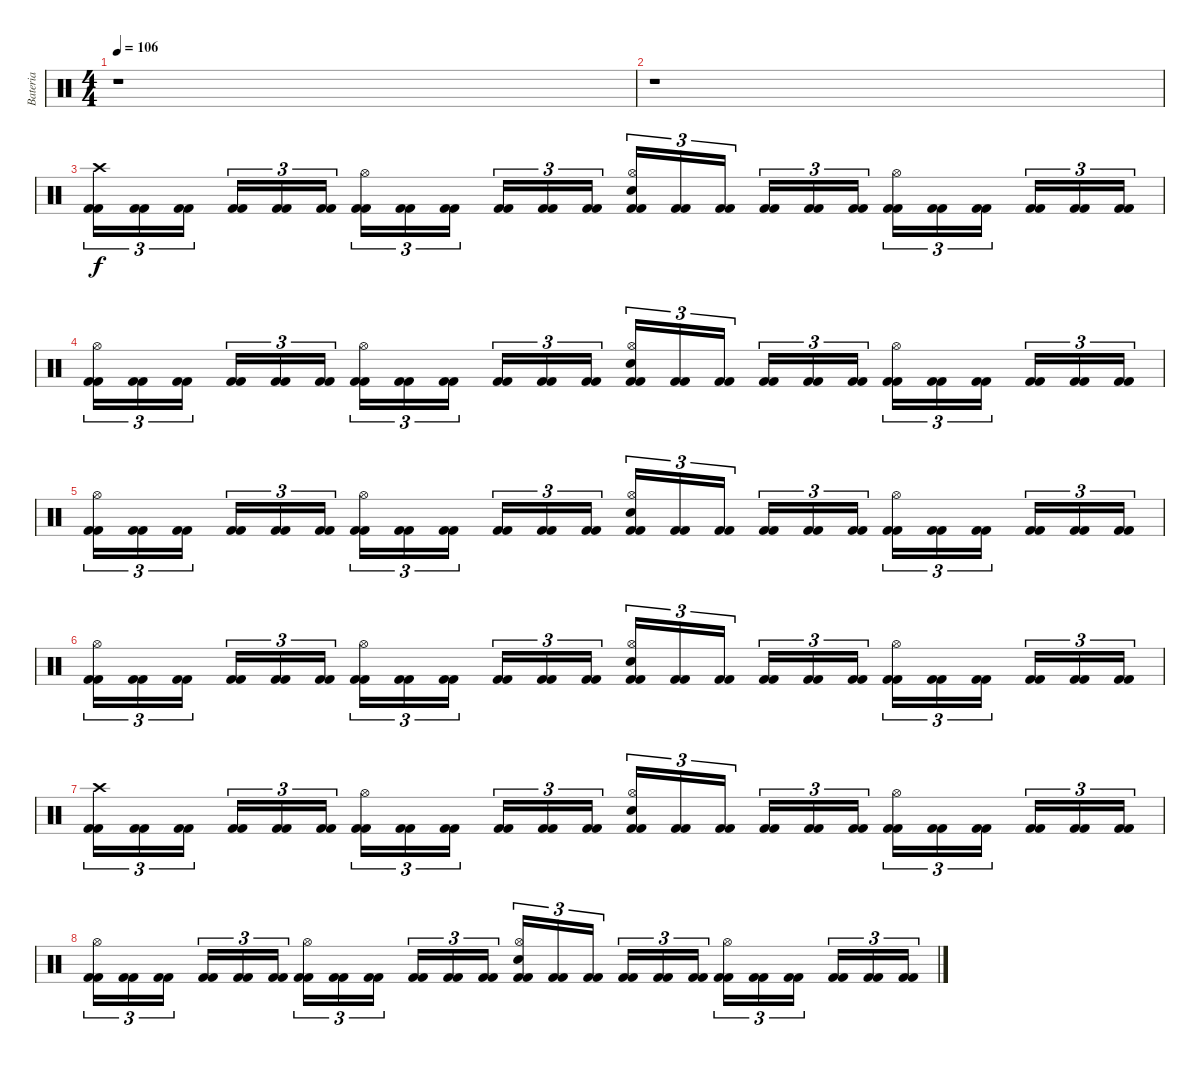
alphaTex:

\track ("Bateria" "Bateria") {instrument percussion}
\staff {score}
\articulation defaults
\ts (4 4)
\tempo 106
\clef neutral
\ks c
r.1{dy f} |
r.1 |
("Kick (hit) 2" "Kick (hit) 2" "Crash high (hit)").16{tu (3 2)} ("Kick (hit) 2" "Kick (hit) 2").16{tu (3 2)} ("Kick (hit) 2" "Kick (hit) 2").16{tu (3 2)} ("Kick (hit) 2" "Kick (hit) 2").16{tu (3 2)} ("Kick (hit) 2" "Kick (hit) 2").16{tu (3 2)} ("Kick (hit) 2" "Kick (hit) 2").16{tu (3 2)} ("Kick (hit) 2" "Kick (hit) 2" "Hi-Hat (open)").16{tu (3 2)} ("Kick (hit) 2" "Kick (hit) 2").16{tu (3 2)} ("Kick (hit) 2" "Kick (hit) 2").16{tu (3 2)} ("Kick (hit) 2" "Kick (hit) 2").16{tu (3 2)} ("Kick (hit) 2" "Kick (hit) 2").16{tu (3 2)} ("Kick (hit) 2" "Kick (hit) 2").16{tu (3 2)} ("Kick (hit) 2" "Kick (hit) 2" "Snare (hit) 2" "Hi-Hat (open)").16{tu (3 2)} ("Kick (hit) 2" "Kick (hit) 2").16{tu (3 2)} ("Kick (hit) 2" "Kick (hit) 2").16{tu (3 2)} ("Kick (hit) 2" "Kick (hit) 2").16{tu (3 2)} ("Kick (hit) 2" "Kick (hit) 2").16{tu (3 2)} ("Kick (hit) 2" "Kick (hit) 2").16{tu (3 2)} ("Kick (hit) 2" "Kick (hit) 2" "Hi-Hat (open)").16{tu (3 2)} ("Kick (hit) 2" "Kick (hit) 2").16{tu (3 2)} ("Kick (hit) 2" "Kick (hit) 2").16{tu (3 2)} ("Kick (hit) 2" "Kick (hit) 2").16{tu (3 2)} ("Kick (hit) 2" "Kick (hit) 2").16{tu (3 2)} ("Kick (hit) 2" "Kick (hit) 2").16{tu (3 2)} |
("Kick (hit) 2" "Kick (hit) 2" "Hi-Hat (open)").16{tu (3 2)} ("Kick (hit) 2" "Kick (hit) 2").16{tu (3 2)} ("Kick (hit) 2" "Kick (hit) 2").16{tu (3 2)} ("Kick (hit) 2" "Kick (hit) 2").16{tu (3 2)} ("Kick (hit) 2" "Kick (hit) 2").16{tu (3 2)} ("Kick (hit) 2" "Kick (hit) 2").16{tu (3 2)} ("Kick (hit) 2" "Kick (hit) 2" "Hi-Hat (open)").16{tu (3 2)} ("Kick (hit) 2" "Kick (hit) 2").16{tu (3 2)} ("Kick (hit) 2" "Kick (hit) 2").16{tu (3 2)} ("Kick (hit) 2" "Kick (hit) 2").16{tu (3 2)} ("Kick (hit) 2" "Kick (hit) 2").16{tu (3 2)} ("Kick (hit) 2" "Kick (hit) 2").16{tu (3 2)} ("Kick (hit) 2" "Kick (hit) 2" "Snare (hit) 2" "Hi-Hat (open)").16{tu (3 2)} ("Kick (hit) 2" "Kick (hit) 2").16{tu (3 2)} ("Kick (hit) 2" "Kick (hit) 2").16{tu (3 2)} ("Kick (hit) 2" "Kick (hit) 2").16{tu (3 2)} ("Kick (hit) 2" "Kick (hit) 2").16{tu (3 2)} ("Kick (hit) 2" "Kick (hit) 2").16{tu (3 2)} ("Kick (hit) 2" "Kick (hit) 2" "Hi-Hat (open)").16{tu (3 2)} ("Kick (hit) 2" "Kick (hit) 2").16{tu (3 2)} ("Kick (hit) 2" "Kick (hit) 2").16{tu (3 2)} ("Kick (hit) 2" "Kick (hit) 2").16{tu (3 2)} ("Kick (hit) 2" "Kick (hit) 2").16{tu (3 2)} ("Kick (hit) 2" "Kick (hit) 2").16{tu (3 2)} |
("Kick (hit) 2" "Kick (hit) 2" "Hi-Hat (open)").16{tu (3 2)} ("Kick (hit) 2" "Kick (hit) 2").16{tu (3 2)} ("Kick (hit) 2" "Kick (hit) 2").16{tu (3 2)} ("Kick (hit) 2" "Kick (hit) 2").16{tu (3 2)} ("Kick (hit) 2" "Kick (hit) 2").16{tu (3 2)} ("Kick (hit) 2" "Kick (hit) 2").16{tu (3 2)} ("Kick (hit) 2" "Kick (hit) 2" "Hi-Hat (open)").16{tu (3 2)} ("Kick (hit) 2" "Kick (hit) 2").16{tu (3 2)} ("Kick (hit) 2" "Kick (hit) 2").16{tu (3 2)} ("Kick (hit) 2" "Kick (hit) 2").16{tu (3 2)} ("Kick (hit) 2" "Kick (hit) 2").16{tu (3 2)} ("Kick (hit) 2" "Kick (hit) 2").16{tu (3 2)} ("Kick (hit) 2" "Kick (hit) 2" "Snare (hit) 2" "Hi-Hat (open)").16{tu (3 2)} ("Kick (hit) 2" "Kick (hit) 2").16{tu (3 2)} ("Kick (hit) 2" "Kick (hit) 2").16{tu (3 2)} ("Kick (hit) 2" "Kick (hit) 2").16{tu (3 2)} ("Kick (hit) 2" "Kick (hit) 2").16{tu (3 2)} ("Kick (hit) 2" "Kick (hit) 2").16{tu (3 2)} ("Kick (hit) 2" "Kick (hit) 2" "Hi-Hat (open)").16{tu (3 2)} ("Kick (hit) 2" "Kick (hit) 2").16{tu (3 2)} ("Kick (hit) 2" "Kick (hit) 2").16{tu (3 2)} ("Kick (hit) 2" "Kick (hit) 2").16{tu (3 2)} ("Kick (hit) 2" "Kick (hit) 2").16{tu (3 2)} ("Kick (hit) 2" "Kick (hit) 2").16{tu (3 2)} |
("Kick (hit) 2" "Kick (hit) 2" "Hi-Hat (open)").16{tu (3 2)} ("Kick (hit) 2" "Kick (hit) 2").16{tu (3 2)} ("Kick (hit) 2" "Kick (hit) 2").16{tu (3 2)} ("Kick (hit) 2" "Kick (hit) 2").16{tu (3 2)} ("Kick (hit) 2" "Kick (hit) 2").16{tu (3 2)} ("Kick (hit) 2" "Kick (hit) 2").16{tu (3 2)} ("Kick (hit) 2" "Kick (hit) 2" "Hi-Hat (open)").16{tu (3 2)} ("Kick (hit) 2" "Kick (hit) 2").16{tu (3 2)} ("Kick (hit) 2" "Kick (hit) 2").16{tu (3 2)} ("Kick (hit) 2" "Kick (hit) 2").16{tu (3 2)} ("Kick (hit) 2" "Kick (hit) 2").16{tu (3 2)} ("Kick (hit) 2" "Kick (hit) 2").16{tu (3 2)} ("Kick (hit) 2" "Kick (hit) 2" "Snare (hit) 2" "Hi-Hat (open)").16{tu (3 2)} ("Kick (hit) 2" "Kick (hit) 2").16{tu (3 2)} ("Kick (hit) 2" "Kick (hit) 2").16{tu (3 2)} ("Kick (hit) 2" "Kick (hit) 2").16{tu (3 2)} ("Kick (hit) 2" "Kick (hit) 2").16{tu (3 2)} ("Kick (hit) 2" "Kick (hit) 2").16{tu (3 2)} ("Kick (hit) 2" "Kick (hit) 2" "Hi-Hat (open)").16{tu (3 2)} ("Kick (hit) 2" "Kick (hit) 2").16{tu (3 2)} ("Kick (hit) 2" "Kick (hit) 2").16{tu (3 2)} ("Kick (hit) 2" "Kick (hit) 2").16{tu (3 2)} ("Kick (hit) 2" "Kick (hit) 2").16{tu (3 2)} ("Kick (hit) 2" "Kick (hit) 2").16{tu (3 2)} |
("Kick (hit) 2" "Kick (hit) 2" "Crash high (hit)").16{tu (3 2)} ("Kick (hit) 2" "Kick (hit) 2").16{tu (3 2)} ("Kick (hit) 2" "Kick (hit) 2").16{tu (3 2)} ("Kick (hit) 2" "Kick (hit) 2").16{tu (3 2)} ("Kick (hit) 2" "Kick (hit) 2").16{tu (3 2)} ("Kick (hit) 2" "Kick (hit) 2").16{tu (3 2)} ("Kick (hit) 2" "Kick (hit) 2" "Hi-Hat (open)").16{tu (3 2)} ("Kick (hit) 2" "Kick (hit) 2").16{tu (3 2)} ("Kick (hit) 2" "Kick (hit) 2").16{tu (3 2)} ("Kick (hit) 2" "Kick (hit) 2").16{tu (3 2)} ("Kick (hit) 2" "Kick (hit) 2").16{tu (3 2)} ("Kick (hit) 2" "Kick (hit) 2").16{tu (3 2)} ("Kick (hit) 2" "Kick (hit) 2" "Snare (hit) 2" "Hi-Hat (open)").16{tu (3 2)} ("Kick (hit) 2" "Kick (hit) 2").16{tu (3 2)} ("Kick (hit) 2" "Kick (hit) 2").16{tu (3 2)} ("Kick (hit) 2" "Kick (hit) 2").16{tu (3 2)} ("Kick (hit) 2" "Kick (hit) 2").16{tu (3 2)} ("Kick (hit) 2" "Kick (hit) 2").16{tu (3 2)} ("Kick (hit) 2" "Kick (hit) 2" "Hi-Hat (open)").16{tu (3 2)} ("Kick (hit) 2" "Kick (hit) 2").16{tu (3 2)} ("Kick (hit) 2" "Kick (hit) 2").16{tu (3 2)} ("Kick (hit) 2" "Kick (hit) 2").16{tu (3 2)} ("Kick (hit) 2" "Kick (hit) 2").16{tu (3 2)} ("Kick (hit) 2" "Kick (hit) 2").16{tu (3 2)} |
("Kick (hit) 2" "Kick (hit) 2" "Hi-Hat (open)").16{tu (3 2)} ("Kick (hit) 2" "Kick (hit) 2").16{tu (3 2)} ("Kick (hit) 2" "Kick (hit) 2").16{tu (3 2)} ("Kick (hit) 2" "Kick (hit) 2").16{tu (3 2)} ("Kick (hit) 2" "Kick (hit) 2").16{tu (3 2)} ("Kick (hit) 2" "Kick (hit) 2").16{tu (3 2)} ("Kick (hit) 2" "Kick (hit) 2" "Hi-Hat (open)").16{tu (3 2)} ("Kick (hit) 2" "Kick (hit) 2").16{tu (3 2)} ("Kick (hit) 2" "Kick (hit) 2").16{tu (3 2)} ("Kick (hit) 2" "Kick (hit) 2").16{tu (3 2)} ("Kick (hit) 2" "Kick (hit) 2").16{tu (3 2)} ("Kick (hit) 2" "Kick (hit) 2").16{tu (3 2)} ("Kick (hit) 2" "Kick (hit) 2" "Snare (hit) 2" "Hi-Hat (open)").16{tu (3 2)} ("Kick (hit) 2" "Kick (hit) 2").16{tu (3 2)} ("Kick (hit) 2" "Kick (hit) 2").16{tu (3 2)} ("Kick (hit) 2" "Kick (hit) 2").16{tu (3 2)} ("Kick (hit) 2" "Kick (hit) 2").16{tu (3 2)} ("Kick (hit) 2" "Kick (hit) 2").16{tu (3 2)} ("Kick (hit) 2" "Kick (hit) 2" "Hi-Hat (open)").16{tu (3 2)} ("Kick (hit) 2" "Kick (hit) 2").16{tu (3 2)} ("Kick (hit) 2" "Kick (hit) 2").16{tu (3 2)} ("Kick (hit) 2" "Kick (hit) 2").16{tu (3 2)} ("Kick (hit) 2" "Kick (hit) 2").16{tu (3 2)} ("Kick (hit) 2" "Kick (hit) 2").16{tu (3 2)}
